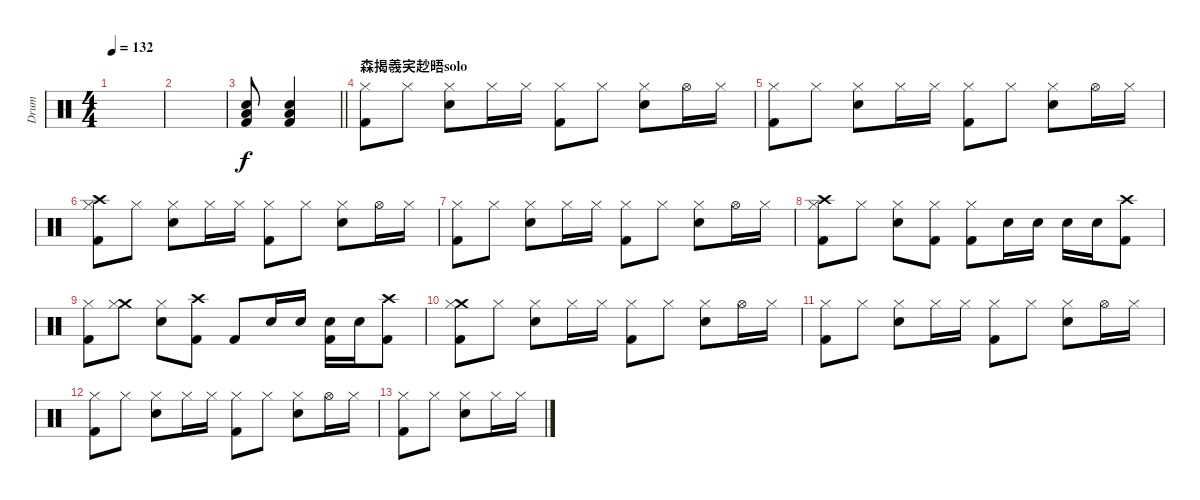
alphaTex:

\track ("Drum" "Drum") {instrument percussion}
\staff {score}
\articulation defaults
\ts (4 4)
\tempo 132
\clef neutral
\ks c
|
|
\barLineRight lightlight
("Snare (hit) 2" "Low Tom (hit)" "Kick (hit) 2").8 ("Snare (hit) 2" "Low Tom (hit)" "Kick (hit) 2").4 |
\section ("" "森揭羲宎赻晤solo")
("Hi-Hat (closed)" "Kick (hit) 2").8 "Hi-Hat (closed)".8 ("Hi-Hat (closed)" "Snare (hit) 2").8 "Hi-Hat (closed)".16 "Hi-Hat (closed)".16 ("Hi-Hat (closed)" "Kick (hit) 2").8 "Hi-Hat (closed)".8 ("Hi-Hat (closed)" "Snare (hit) 2").8 "Hi-Hat (open)".16 "Hi-Hat (closed)".16 |
("Hi-Hat (closed)" "Kick (hit) 2").8 "Hi-Hat (closed)".8 ("Hi-Hat (closed)" "Snare (hit) 2").8 "Hi-Hat (closed)".16 "Hi-Hat (closed)".16 ("Hi-Hat (closed)" "Kick (hit) 2").8 "Hi-Hat (closed)".8 ("Hi-Hat (closed)" "Snare (hit) 2").8 "Hi-Hat (open)".16 "Hi-Hat (closed)".16 |
("Crash high (hit)" "Hi-Hat (closed)" "Kick (hit) 2").8 "Hi-Hat (closed)".8 ("Hi-Hat (closed)" "Snare (hit) 2").8 "Hi-Hat (closed)".16 "Hi-Hat (closed)".16 ("Hi-Hat (closed)" "Kick (hit) 2").8 "Hi-Hat (closed)".8 ("Hi-Hat (closed)" "Snare (hit) 2").8 "Hi-Hat (open)".16 "Hi-Hat (closed)".16 |
("Hi-Hat (closed)" "Kick (hit) 2").8 "Hi-Hat (closed)".8 ("Hi-Hat (closed)" "Snare (hit) 2").8 "Hi-Hat (closed)".16 "Hi-Hat (closed)".16 ("Hi-Hat (closed)" "Kick (hit) 2").8 "Hi-Hat (closed)".8 ("Hi-Hat (closed)" "Snare (hit) 2").8 "Hi-Hat (open)".16 "Hi-Hat (closed)".16 |
("Crash high (hit)" "Hi-Hat (closed)" "Kick (hit) 2").8 "Hi-Hat (closed)".8 ("Hi-Hat (closed)" "Snare (hit) 2").8 ("Hi-Hat (closed)" "Kick (hit) 2").8 ("Hi-Hat (closed)" "Kick (hit) 2").8 "Snare (hit) 2".16 "Snare (hit) 2".16 "Snare (hit) 2".16 "Snare (hit) 2".16 ("Crash high (hit)" "Kick (hit) 2").8 |
("Hi-Hat (closed)" "Kick (hit) 2").8 ("Crash medium (hit)" "Hi-Hat (closed)").8 ("Hi-Hat (closed)" "Snare (hit) 2").8 ("Crash high (hit)" "Kick (hit) 2").8 "Kick (hit) 2".8 "Snare (hit) 2".16 "Snare (hit) 2".16 ("Snare (hit) 2" "Kick (hit) 2").16 "Snare (hit) 2".16 ("Crash high (hit)" "Kick (hit) 2").8 |
("Crash medium (hit)" "Hi-Hat (closed)" "Kick (hit) 2").8 "Hi-Hat (closed)".8 ("Hi-Hat (closed)" "Snare (hit) 2").8 "Hi-Hat (closed)".16 "Hi-Hat (closed)".16 ("Hi-Hat (closed)" "Kick (hit) 2").8 "Hi-Hat (closed)".8 ("Hi-Hat (closed)" "Snare (hit) 2").8 "Hi-Hat (open)".16 "Hi-Hat (closed)".16 |
("Hi-Hat (closed)" "Kick (hit) 2").8 "Hi-Hat (closed)".8 ("Hi-Hat (closed)" "Snare (hit) 2").8 "Hi-Hat (closed)".16 "Hi-Hat (closed)".16 ("Hi-Hat (closed)" "Kick (hit) 2").8 "Hi-Hat (closed)".8 ("Hi-Hat (closed)" "Snare (hit) 2").8 "Hi-Hat (open)".16 "Hi-Hat (closed)".16 |
("Hi-Hat (closed)" "Kick (hit) 2").8 "Hi-Hat (closed)".8 ("Hi-Hat (closed)" "Snare (hit) 2").8 "Hi-Hat (closed)".16 "Hi-Hat (closed)".16 ("Hi-Hat (closed)" "Kick (hit) 2").8 "Hi-Hat (closed)".8 ("Hi-Hat (closed)" "Snare (hit) 2").8 "Hi-Hat (open)".16 "Hi-Hat (closed)".16 |
("Hi-Hat (closed)" "Kick (hit) 2").8 "Hi-Hat (closed)".8 ("Hi-Hat (closed)" "Snare (hit) 2").8 "Hi-Hat (closed)".16 "Hi-Hat (closed)".16
